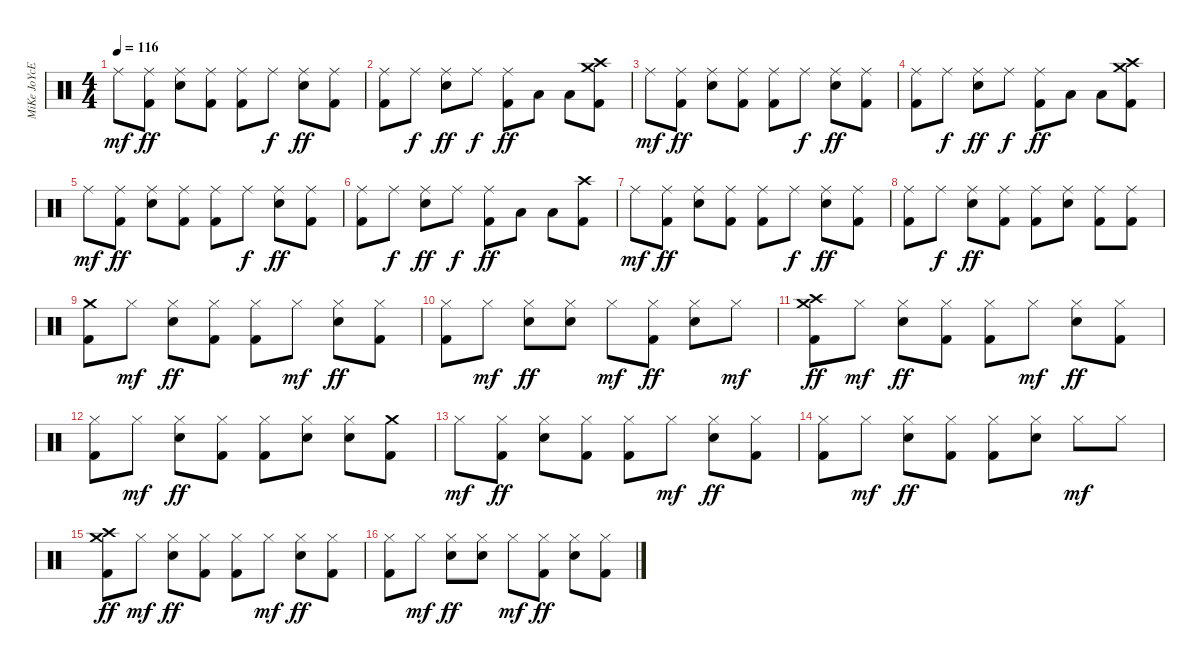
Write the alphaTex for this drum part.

\track ("MiKe JoYcE" "MiKe JoYcE") {instrument percussion}
\staff {score}
\articulation defaults
\ts (4 4)
\tempo 116
\clef neutral
\ks c "Ride (middle)".8{dy mf}
("Ride (middle)" "Kick (hit) 2").8{dy ff} ("Ride (middle)" "Electric Snare (hit)").8 ("Ride (middle)" "Kick (hit) 2").8 ("Ride (middle)" "Kick (hit) 2").8 "Ride (middle)".8{dy f} ("Ride (middle)" "Electric Snare (hit)").8{dy ff} ("Ride (middle)" "Kick (hit) 2").8 |
("Ride (middle)" "Kick (hit) 2").8 "Ride (middle)".8{dy f} ("Ride (middle)" "Electric Snare (hit)").8{dy ff} "Ride (middle)".8{dy f} ("Ride (middle)" "Kick (hit) 2").8{dy ff} "Low Tom (hit)".8 "Low Floor Tom (hit)".8 ("Crash medium (hit)" "Crash high (hit)" "Kick (hit) 2").8 |
"Ride (middle)".8{dy mf} ("Ride (middle)" "Kick (hit) 2").8{dy ff} ("Ride (middle)" "Electric Snare (hit)").8 ("Ride (middle)" "Kick (hit) 2").8 ("Ride (middle)" "Kick (hit) 2").8 "Ride (middle)".8{dy f} ("Ride (middle)" "Electric Snare (hit)").8{dy ff} ("Ride (middle)" "Kick (hit) 2").8 |
("Ride (middle)" "Kick (hit) 2").8 "Ride (middle)".8{dy f} ("Ride (middle)" "Electric Snare (hit)").8{dy ff} "Ride (middle)".8{dy f} ("Ride (middle)" "Kick (hit) 2").8{dy ff} "Low Tom (hit)".8 "Low Floor Tom (hit)".8 ("Crash high (hit)" "Crash medium (hit)" "Kick (hit) 2").8 |
"Ride (middle)".8{dy mf} ("Ride (middle)" "Kick (hit) 2").8{dy ff} ("Ride (middle)" "Electric Snare (hit)").8 ("Ride (middle)" "Kick (hit) 2").8 ("Ride (middle)" "Kick (hit) 2").8 "Ride (middle)".8{dy f} ("Ride (middle)" "Electric Snare (hit)").8{dy ff} ("Ride (middle)" "Kick (hit) 2").8 |
("Ride (middle)" "Kick (hit) 2").8 "Ride (middle)".8{dy f} ("Ride (middle)" "Electric Snare (hit)").8{dy ff} "Ride (middle)".8{dy f} ("Ride (middle)" "Kick (hit) 2").8{dy ff} "Low Tom (hit)".8 "Low Floor Tom (hit)".8 ("Crash high (hit)" "Kick (hit) 2").8 |
"Ride (middle)".8{dy mf} ("Ride (middle)" "Kick (hit) 2").8{dy ff} ("Ride (middle)" "Electric Snare (hit)").8 ("Ride (middle)" "Kick (hit) 2").8 ("Ride (middle)" "Kick (hit) 2").8 "Ride (middle)".8{dy f} ("Ride (middle)" "Electric Snare (hit)").8{dy ff} ("Ride (middle)" "Kick (hit) 2").8 |
("Ride (middle)" "Kick (hit) 2").8 "Ride (middle)".8{dy f} ("Ride (middle)" "Electric Snare (hit)").8{dy ff} ("Ride (middle)" "Kick (hit) 2").8 ("Ride (middle)" "Kick (hit) 2").8 ("Ride (middle)" "Electric Snare (hit)").8 ("Ride (middle)" "Kick (hit) 2").8 ("Ride (middle)" "Kick (hit) 2").8 |
("Crash medium (hit)" "Kick (hit) 2").8 "Hi-Hat (closed)".8{dy mf} ("Hi-Hat (closed)" "Electric Snare (hit)").8{dy ff} ("Hi-Hat (closed)" "Kick (hit) 2").8 ("Hi-Hat (closed)" "Kick (hit) 2").8 "Hi-Hat (closed)".8{dy mf} ("Hi-Hat (closed)" "Electric Snare (hit)").8{dy ff} ("Hi-Hat (closed)" "Kick (hit) 2").8 |
("Hi-Hat (closed)" "Kick (hit) 2").8 "Hi-Hat (closed)".8{dy mf} ("Hi-Hat (closed)" "Electric Snare (hit)").8{dy ff} ("Hi-Hat (closed)" "Electric Snare (hit)").8 "Hi-Hat (closed)".8{dy mf} ("Hi-Hat (closed)" "Kick (hit) 2").8{dy ff} ("Hi-Hat (closed)" "Electric Snare (hit)").8 "Hi-Hat (closed)".8{dy mf} |
("Crash medium (hit)" "Crash high (hit)" "Kick (hit) 2").8{dy ff} "Hi-Hat (closed)".8{dy mf} ("Hi-Hat (closed)" "Electric Snare (hit)").8{dy ff} ("Hi-Hat (closed)" "Kick (hit) 2").8 ("Hi-Hat (closed)" "Kick (hit) 2").8 "Hi-Hat (closed)".8{dy mf} ("Hi-Hat (closed)" "Electric Snare (hit)").8{dy ff} ("Hi-Hat (closed)" "Kick (hit) 2").8 |
("Hi-Hat (closed)" "Kick (hit) 2").8 "Hi-Hat (closed)".8{dy mf} ("Hi-Hat (closed)" "Electric Snare (hit)").8{dy ff} ("Hi-Hat (closed)" "Kick (hit) 2").8 ("Hi-Hat (closed)" "Kick (hit) 2").8 ("Hi-Hat (closed)" "Electric Snare (hit)").8 ("Hi-Hat (closed)" "Electric Snare (hit)").8 ("Crash medium (hit)" "Kick (hit) 2").8 |
"Hi-Hat (closed)".8{dy mf} ("Hi-Hat (closed)" "Kick (hit) 2").8{dy ff} ("Hi-Hat (closed)" "Electric Snare (hit)").8 ("Hi-Hat (closed)" "Kick (hit) 2").8 ("Hi-Hat (closed)" "Kick (hit) 2").8 "Hi-Hat (closed)".8{dy mf} ("Hi-Hat (closed)" "Electric Snare (hit)").8{dy ff} ("Hi-Hat (closed)" "Kick (hit) 2").8 |
("Hi-Hat (closed)" "Kick (hit) 2").8 "Hi-Hat (closed)".8{dy mf} ("Hi-Hat (closed)" "Electric Snare (hit)").8{dy ff} ("Hi-Hat (closed)" "Kick (hit) 2").8 ("Hi-Hat (closed)" "Kick (hit) 2").8 ("Hi-Hat (closed)" "Electric Snare (hit)").8 "Hi-Hat (closed)".8{dy mf} "Hi-Hat (closed)".8 |
("Crash medium (hit)" "Crash high (hit)" "Kick (hit) 2").8{dy ff} "Hi-Hat (closed)".8{dy mf} ("Hi-Hat (closed)" "Electric Snare (hit)").8{dy ff} ("Hi-Hat (closed)" "Kick (hit) 2").8 ("Hi-Hat (closed)" "Kick (hit) 2").8 "Hi-Hat (closed)".8{dy mf} ("Hi-Hat (closed)" "Electric Snare (hit)").8{dy ff} ("Hi-Hat (closed)" "Kick (hit) 2").8 |
("Hi-Hat (closed)" "Kick (hit) 2").8 "Hi-Hat (closed)".8{dy mf} ("Hi-Hat (closed)" "Electric Snare (hit)").8{dy ff} ("Hi-Hat (closed)" "Electric Snare (hit)").8 "Hi-Hat (closed)".8{dy mf} ("Hi-Hat (closed)" "Kick (hit) 2").8{dy ff} ("Hi-Hat (closed)" "Electric Snare (hit)").8 ("Hi-Hat (closed)" "Kick (hit) 2").8
